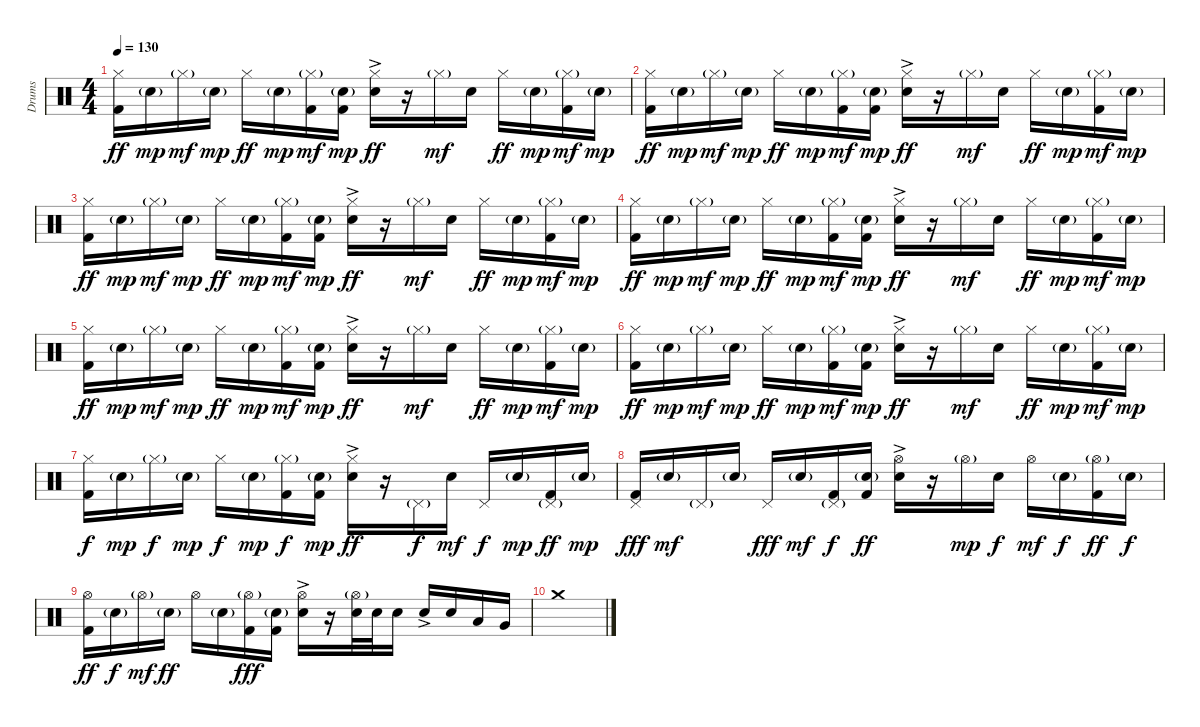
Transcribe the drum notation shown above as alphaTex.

\track ("Drums" "Drums") {instrument percussion}
\staff {score}
\articulation defaults
\ts (4 4)
\tempo 130
\clef neutral
\ks c
("Hi-Hat (closed)" "Kick (hit) 2").16{dy ff} "Electric Snare (hit)"{g}.16{dy mp} "Hi-Hat (closed)"{g}.16{dy mf} "Electric Snare (hit)"{g}.16{dy mp} "Hi-Hat (closed)".16{dy ff} "Electric Snare (hit)"{g}.16{dy mp} ("Hi-Hat (closed)"{g} "Kick (hit) 2").16{dy mf} ("Electric Snare (hit)"{g} "Kick (hit) 2").16{dy mp} ("Hi-Hat (closed)" "Electric Snare (hit)"{ac}).16{dy ff} r.16 "Hi-Hat (closed)"{g}.16{dy mf} "Electric Snare (hit)".16 "Hi-Hat (closed)".16{dy ff} "Electric Snare (hit)"{g}.16{dy mp} ("Hi-Hat (closed)"{g} "Kick (hit) 2").16{dy mf} "Electric Snare (hit)"{g}.16{dy mp} |
("Hi-Hat (closed)" "Kick (hit) 2").16{dy ff} "Electric Snare (hit)"{g}.16{dy mp} "Hi-Hat (closed)"{g}.16{dy mf} "Electric Snare (hit)"{g}.16{dy mp} "Hi-Hat (closed)".16{dy ff} "Electric Snare (hit)"{g}.16{dy mp} ("Hi-Hat (closed)"{g} "Kick (hit) 2").16{dy mf} ("Electric Snare (hit)"{g} "Kick (hit) 2").16{dy mp} ("Hi-Hat (closed)" "Electric Snare (hit)"{ac}).16{dy ff} r.16 "Hi-Hat (closed)"{g}.16{dy mf} "Electric Snare (hit)".16 "Hi-Hat (closed)".16{dy ff} "Electric Snare (hit)"{g}.16{dy mp} ("Hi-Hat (closed)"{g} "Kick (hit) 2").16{dy mf} "Electric Snare (hit)"{g}.16{dy mp} |
("Hi-Hat (closed)" "Kick (hit) 2").16{dy ff} "Electric Snare (hit)"{g}.16{dy mp} "Hi-Hat (closed)"{g}.16{dy mf} "Electric Snare (hit)"{g}.16{dy mp} "Hi-Hat (closed)".16{dy ff} "Electric Snare (hit)"{g}.16{dy mp} ("Hi-Hat (closed)"{g} "Kick (hit) 2").16{dy mf} ("Electric Snare (hit)"{g} "Kick (hit) 2").16{dy mp} ("Hi-Hat (closed)" "Electric Snare (hit)"{ac}).16{dy ff} r.16 "Hi-Hat (closed)"{g}.16{dy mf} "Electric Snare (hit)".16 "Hi-Hat (closed)".16{dy ff} "Electric Snare (hit)"{g}.16{dy mp} ("Hi-Hat (closed)"{g} "Kick (hit) 2").16{dy mf} "Electric Snare (hit)"{g}.16{dy mp} |
("Hi-Hat (closed)" "Kick (hit) 2").16{dy ff} "Electric Snare (hit)"{g}.16{dy mp} "Hi-Hat (closed)"{g}.16{dy mf} "Electric Snare (hit)"{g}.16{dy mp} "Hi-Hat (closed)".16{dy ff} "Electric Snare (hit)"{g}.16{dy mp} ("Hi-Hat (closed)"{g} "Kick (hit) 2").16{dy mf} ("Electric Snare (hit)"{g} "Kick (hit) 2").16{dy mp} ("Hi-Hat (closed)" "Electric Snare (hit)"{ac}).16{dy ff} r.16 "Hi-Hat (closed)"{g}.16{dy mf} "Electric Snare (hit)".16 "Hi-Hat (closed)".16{dy ff} "Electric Snare (hit)"{g}.16{dy mp} ("Hi-Hat (closed)"{g} "Kick (hit) 2").16{dy mf} "Electric Snare (hit)"{g}.16{dy mp} |
("Hi-Hat (closed)" "Kick (hit) 2").16{dy ff} "Electric Snare (hit)"{g}.16{dy mp} "Hi-Hat (closed)"{g}.16{dy mf} "Electric Snare (hit)"{g}.16{dy mp} "Hi-Hat (closed)".16{dy ff} "Electric Snare (hit)"{g}.16{dy mp} ("Hi-Hat (closed)"{g} "Kick (hit) 2").16{dy mf} ("Electric Snare (hit)"{g} "Kick (hit) 2").16{dy mp} ("Hi-Hat (closed)" "Electric Snare (hit)"{ac}).16{dy ff} r.16 "Hi-Hat (closed)"{g}.16{dy mf} "Electric Snare (hit)".16 "Hi-Hat (closed)".16{dy ff} "Electric Snare (hit)"{g}.16{dy mp} ("Hi-Hat (closed)"{g} "Kick (hit) 2").16{dy mf} "Electric Snare (hit)"{g}.16{dy mp} |
("Hi-Hat (closed)" "Kick (hit) 2").16{dy ff} "Electric Snare (hit)"{g}.16{dy mp} "Hi-Hat (closed)"{g}.16{dy mf} "Electric Snare (hit)"{g}.16{dy mp} "Hi-Hat (closed)".16{dy ff} "Electric Snare (hit)"{g}.16{dy mp} ("Hi-Hat (closed)"{g} "Kick (hit) 2").16{dy mf} ("Electric Snare (hit)"{g} "Kick (hit) 2").16{dy mp} ("Hi-Hat (closed)" "Electric Snare (hit)"{ac}).16{dy ff} r.16 "Hi-Hat (closed)"{g}.16{dy mf} "Electric Snare (hit)".16 "Hi-Hat (closed)".16{dy ff} "Electric Snare (hit)"{g}.16{dy mp} ("Hi-Hat (closed)"{g} "Kick (hit) 2").16{dy mf} "Electric Snare (hit)"{g}.16{dy mp} |
("Hi-Hat (closed)" "Kick (hit) 2").16{dy f} "Electric Snare (hit)"{g}.16{dy mp} "Hi-Hat (closed)"{g}.16{dy f} "Electric Snare (hit)"{g}.16{dy mp} "Hi-Hat (closed)".16{dy f} "Electric Snare (hit)"{g}.16{dy mp} ("Hi-Hat (closed)"{g} "Kick (hit) 2").16{dy f} ("Electric Snare (hit)"{g} "Kick (hit) 2").16{dy mp} ("Hi-Hat (closed)" "Electric Snare (hit)"{ac}).16{dy ff} r.16 "Pedal Hi-Hat (hit)"{g}.16{dy f} "Electric Snare (hit)".16{dy mf} "Pedal Hi-Hat (hit)".16{dy f} "Electric Snare (hit)"{g}.16{dy mp} ("Pedal Hi-Hat (hit)"{g} "Kick (hit) 2").16{dy ff} "Electric Snare (hit)"{g}.16{dy mp} |
("Pedal Hi-Hat (hit)" "Kick (hit) 2").16{dy fff} "Electric Snare (hit)"{g}.16{dy mf} "Pedal Hi-Hat (hit)"{g}.16 "Electric Snare (hit)"{g}.16 "Pedal Hi-Hat (hit)".16{dy fff} "Electric Snare (hit)"{g}.16{dy mf} ("Pedal Hi-Hat (hit)"{g} "Kick (hit) 2").16{dy f} ("Electric Snare (hit)"{g} "Kick (hit) 2").16{dy ff} ("Hi-Hat (open)" "Electric Snare (hit)"{ac}).16 r.16 "Hi-Hat (open)"{g}.16{dy mp} "Electric Snare (hit)".16{dy f} "Hi-Hat (open)".16{dy mf} "Electric Snare (hit)"{g}.16{dy f} ("Hi-Hat (open)"{g} "Kick (hit) 2").16{dy ff} "Electric Snare (hit)"{g}.16{dy f} |
("Hi-Hat (open)" "Kick (hit) 2").16{dy ff} "Electric Snare (hit)"{g}.16{dy f} "Hi-Hat (open)"{g}.16{dy mf} "Electric Snare (hit)"{g}.16{dy ff} "Hi-Hat (open)".16 "Electric Snare (hit)"{g}.16 ("Hi-Hat (open)"{g} "Kick (hit) 2").16{dy fff} ("Electric Snare (hit)"{g} "Kick (hit) 2").16 ("Hi-Hat (open)" "Electric Snare (hit)"{ac}).16 r.16 ("Hi-Hat (open)"{g} "Electric Snare (hit)").32 "Electric Snare (hit)".32 "Electric Snare (hit)".16 "Electric Snare (hit)"{ac}.16 "Electric Snare (hit)".16 "Low Tom (hit)".16 "Very Low Tom (hit)".16 |
"Crash medium (hit)".1
